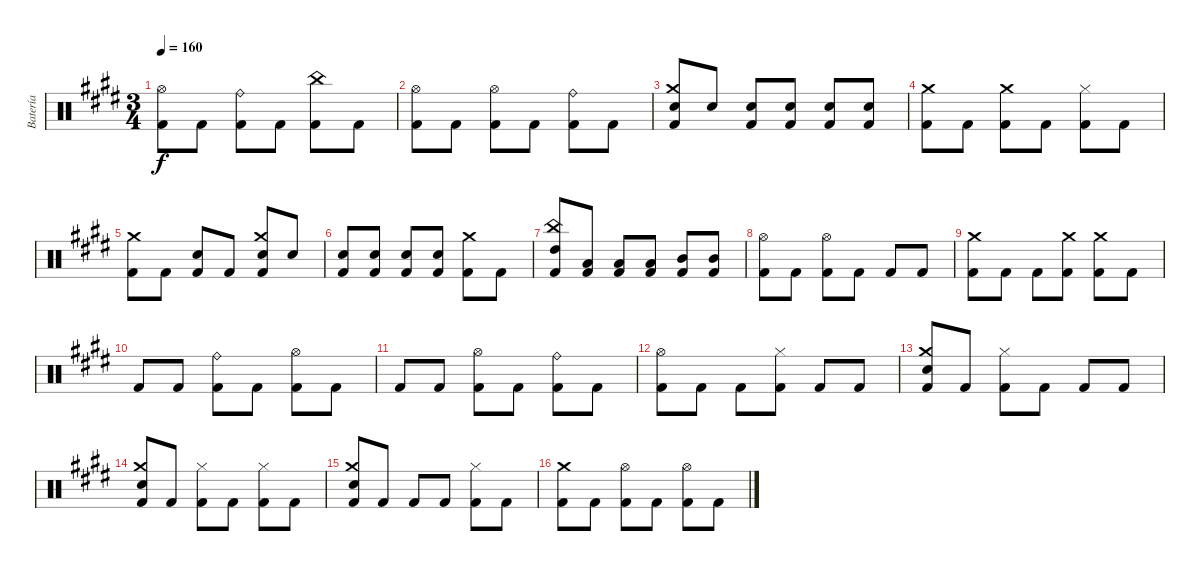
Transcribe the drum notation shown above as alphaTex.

\track ("Batería" "Batería") {instrument percussion}
\staff {score}
\articulation defaults
\ts (3 4)
\tempo 160
\clef neutral
\ks c#minor
("Hi-Hat (open)" "Kick (hit) 2").8{dy f} "Kick (hit) 2".8 ("Ride (bell)" "Kick (hit) 2").8 "Kick (hit) 2".8 ("China (hit)" "Kick (hit) 2").8 "Kick (hit) 2".8 |
("Hi-Hat (open)" "Kick (hit) 2").8 "Kick (hit) 2".8 ("Hi-Hat (open)" "Kick (hit) 2").8 "Kick (hit) 2".8 ("Ride (bell)" "Kick (hit) 2").8 "Kick (hit) 2".8 |
("Crash medium (hit)" "Snare (hit) 2" "Kick (hit) 2").8 "Snare (hit) 2".8 ("Snare (hit) 2" "Kick (hit) 2").8 ("Snare (hit) 2" "Kick (hit) 2").8 ("Snare (hit) 2" "Kick (hit) 2").8 ("Snare (hit) 2" "Kick (hit) 2").8 |
("Crash medium (hit)" "Kick (hit) 2").8 "Kick (hit) 2".8 ("Crash medium (hit)" "Kick (hit) 2").8 "Kick (hit) 2".8 ("Hi-Hat (closed)" "Kick (hit) 2").8 "Kick (hit) 2".8 |
("Crash medium (hit)" "Kick (hit) 2").8 "Kick (hit) 2".8 ("Snare (hit) 2" "Kick (hit) 2").8 "Kick (hit) 2".8 ("Crash medium (hit)" "Snare (hit) 2" "Kick (hit) 2").8 "Snare (hit) 2".8 |
("Snare (hit) 2" "Kick (hit) 2").8 ("Snare (hit) 2" "Kick (hit) 2").8 ("Snare (hit) 2" "Kick (hit) 2").8 ("Snare (hit) 2" "Kick (hit) 2").8 ("Crash medium (hit)" "Kick (hit) 2").8 "Kick (hit) 2".8 |
("China (hit)" "High Tom (hit)" "Kick (hit) 2").8 ("Low Tom (hit)" "Kick (hit) 2").8 ("Low Tom (hit)" "Kick (hit) 2").8 ("Low Tom (hit)" "Kick (hit) 2").8 ("Mid Tom (hit)" "Kick (hit) 2").8 ("Mid Tom (hit)" "Kick (hit) 2").8 |
("Hi-Hat (open)" "Kick (hit) 2").8 "Kick (hit) 2".8 ("Hi-Hat (open)" "Kick (hit) 2").8 "Kick (hit) 2".8 "Kick (hit) 2".8 "Kick (hit) 2".8 |
("Crash medium (hit)" "Kick (hit) 2").8 "Kick (hit) 2".8 "Kick (hit) 2".8 ("Crash medium (hit)" "Kick (hit) 2").8 ("Crash medium (hit)" "Kick (hit) 2").8 "Kick (hit) 2".8 |
"Kick (hit) 2".8 "Kick (hit) 2".8 ("Ride (bell)" "Kick (hit) 2").8 "Kick (hit) 2".8 ("Hi-Hat (open)" "Kick (hit) 2").8 "Kick (hit) 2".8 |
"Kick (hit) 2".8 "Kick (hit) 2".8 ("Hi-Hat (open)" "Kick (hit) 2").8 "Kick (hit) 2".8 ("Ride (bell)" "Kick (hit) 2").8 "Kick (hit) 2".8 |
("Hi-Hat (open)" "Kick (hit) 2").8 "Kick (hit) 2".8 "Kick (hit) 2".8 ("Hi-Hat (closed)" "Kick (hit) 2").8 "Kick (hit) 2".8 "Kick (hit) 2".8 |
("Crash medium (hit)" "Snare (hit) 2" "Kick (hit) 2").8 "Kick (hit) 2".8 ("Hi-Hat (closed)" "Kick (hit) 2").8 "Kick (hit) 2".8 "Kick (hit) 2".8 "Kick (hit) 2".8 |
("Crash medium (hit)" "Snare (hit) 2" "Kick (hit) 2").8 "Kick (hit) 2".8 ("Hi-Hat (closed)" "Kick (hit) 2").8 "Kick (hit) 2".8 ("Hi-Hat (closed)" "Kick (hit) 2").8 "Kick (hit) 2".8 |
("Crash medium (hit)" "Snare (hit) 2" "Kick (hit) 2").8 "Kick (hit) 2".8 "Kick (hit) 2".8 "Kick (hit) 2".8 ("Hi-Hat (closed)" "Kick (hit) 2").8 "Kick (hit) 2".8 |
("Crash medium (hit)" "Kick (hit) 2").8 "Kick (hit) 2".8 ("Hi-Hat (open)" "Kick (hit) 2").8 "Kick (hit) 2".8 ("Hi-Hat (open)" "Kick (hit) 2").8 "Kick (hit) 2".8
